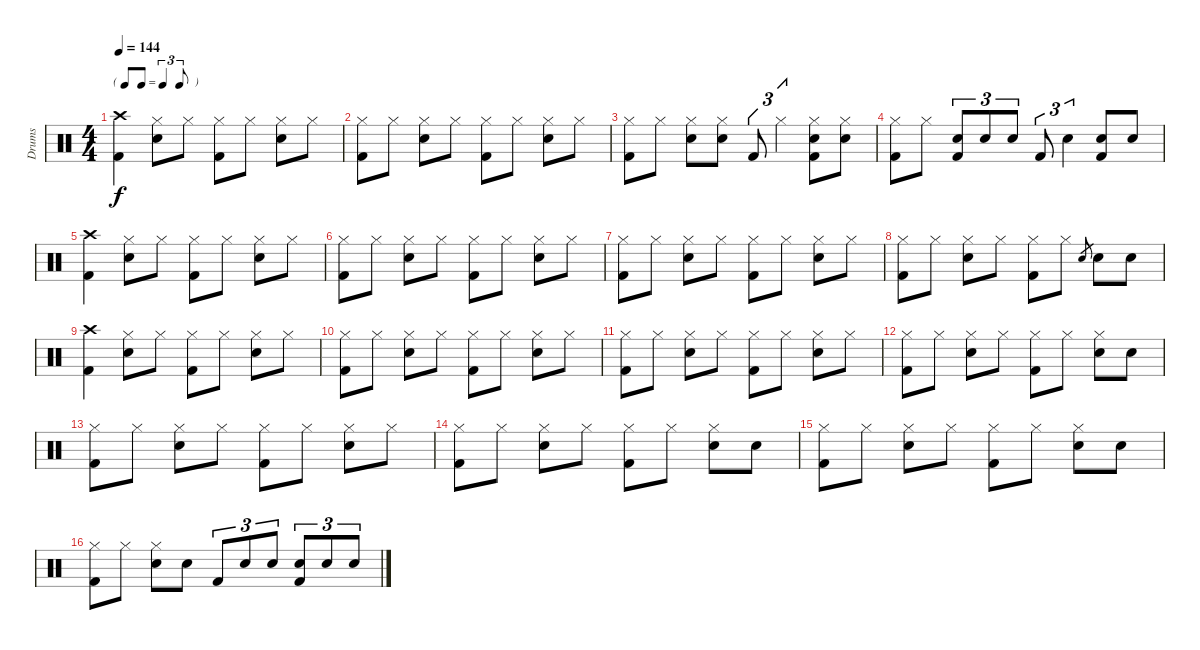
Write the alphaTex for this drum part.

\track ("Drums" "Drums") {instrument percussion}
\staff {score}
\articulation defaults
\ts (4 4)
\tf triplet8th
\tempo 144
\clef neutral
\ks c
("Crash high (hit)" "Kick (hit) 2").4{dy f} ("Hi-Hat (closed)" "Electric Snare (hit)").8 "Hi-Hat (closed)".8 ("Hi-Hat (closed)" "Kick (hit) 2").8 "Hi-Hat (closed)".8 ("Hi-Hat (closed)" "Electric Snare (hit)").8 "Hi-Hat (closed)".8 |
("Hi-Hat (closed)" "Kick (hit) 2").8 "Hi-Hat (closed)".8 ("Hi-Hat (closed)" "Electric Snare (hit)").8 "Hi-Hat (closed)".8 ("Hi-Hat (closed)" "Kick (hit) 2").8 "Hi-Hat (closed)".8 ("Hi-Hat (closed)" "Electric Snare (hit)").8 "Hi-Hat (closed)".8 |
("Hi-Hat (closed)" "Kick (hit) 2").8 "Hi-Hat (closed)".8 ("Hi-Hat (closed)" "Electric Snare (hit)").8 ("Hi-Hat (closed)" "Electric Snare (hit)").8 "Kick (hit) 2".8{tu (3 2)} "Hi-Hat (closed)".4{tu (3 2)} ("Hi-Hat (closed)" "Electric Snare (hit)" "Kick (hit) 2").8 ("Hi-Hat (closed)" "Electric Snare (hit)").8 |
("Hi-Hat (closed)" "Kick (hit) 2").8 "Hi-Hat (closed)".8 ("Electric Snare (hit)" "Kick (hit) 2").8{tu (3 2)} "Electric Snare (hit)".8{tu (3 2)} "Electric Snare (hit)".8{tu (3 2)} "Kick (hit) 2".8{tu (3 2)} "Electric Snare (hit)".4{tu (3 2)} ("Electric Snare (hit)" "Kick (hit) 2").8 "Electric Snare (hit)".8 |
("Crash high (hit)" "Kick (hit) 2").4 ("Hi-Hat (closed)" "Electric Snare (hit)").8 "Hi-Hat (closed)".8 ("Hi-Hat (closed)" "Kick (hit) 2").8 "Hi-Hat (closed)".8 ("Hi-Hat (closed)" "Electric Snare (hit)").8 "Hi-Hat (closed)".8 |
("Hi-Hat (closed)" "Kick (hit) 2").8 "Hi-Hat (closed)".8 ("Hi-Hat (closed)" "Electric Snare (hit)").8 "Hi-Hat (closed)".8 ("Hi-Hat (closed)" "Kick (hit) 2").8 "Hi-Hat (closed)".8 ("Hi-Hat (closed)" "Electric Snare (hit)").8 "Hi-Hat (closed)".8 |
("Hi-Hat (closed)" "Kick (hit) 2").8 "Hi-Hat (closed)".8 ("Hi-Hat (closed)" "Electric Snare (hit)").8 "Hi-Hat (closed)".8 ("Hi-Hat (closed)" "Kick (hit) 2").8 "Hi-Hat (closed)".8 ("Hi-Hat (closed)" "Electric Snare (hit)").8 "Hi-Hat (closed)".8 |
("Hi-Hat (closed)" "Kick (hit) 2").8 "Hi-Hat (closed)".8 ("Hi-Hat (closed)" "Electric Snare (hit)").8 "Hi-Hat (closed)".8 ("Hi-Hat (closed)" "Kick (hit) 2").8 "Hi-Hat (closed)".8 "Electric Snare (hit)".8{gr} "Electric Snare (hit)".8 "Electric Snare (hit)".8 |
("Crash high (hit)" "Kick (hit) 2").4 ("Hi-Hat (closed)" "Electric Snare (hit)").8 "Hi-Hat (closed)".8 ("Hi-Hat (closed)" "Kick (hit) 2").8 "Hi-Hat (closed)".8 ("Hi-Hat (closed)" "Electric Snare (hit)").8 "Hi-Hat (closed)".8 |
("Hi-Hat (closed)" "Kick (hit) 2").8 "Hi-Hat (closed)".8 ("Hi-Hat (closed)" "Electric Snare (hit)").8 "Hi-Hat (closed)".8 ("Hi-Hat (closed)" "Kick (hit) 2").8 "Hi-Hat (closed)".8 ("Hi-Hat (closed)" "Electric Snare (hit)").8 "Hi-Hat (closed)".8 |
("Hi-Hat (closed)" "Kick (hit) 2").8 "Hi-Hat (closed)".8 ("Hi-Hat (closed)" "Electric Snare (hit)").8 "Hi-Hat (closed)".8 ("Hi-Hat (closed)" "Kick (hit) 2").8 "Hi-Hat (closed)".8 ("Hi-Hat (closed)" "Electric Snare (hit)").8 "Hi-Hat (closed)".8 |
("Hi-Hat (closed)" "Kick (hit) 2").8 "Hi-Hat (closed)".8 ("Hi-Hat (closed)" "Electric Snare (hit)").8 "Hi-Hat (closed)".8 ("Hi-Hat (closed)" "Kick (hit) 2").8 "Hi-Hat (closed)".8 ("Hi-Hat (closed)" "Electric Snare (hit)").8 "Electric Snare (hit)".8 |
("Hi-Hat (closed)" "Kick (hit) 2").8 "Hi-Hat (closed)".8 ("Hi-Hat (closed)" "Electric Snare (hit)").8 "Hi-Hat (closed)".8 ("Hi-Hat (closed)" "Kick (hit) 2").8 "Hi-Hat (closed)".8 ("Hi-Hat (closed)" "Electric Snare (hit)").8 "Hi-Hat (closed)".8 |
("Hi-Hat (closed)" "Kick (hit) 2").8 "Hi-Hat (closed)".8 ("Hi-Hat (closed)" "Electric Snare (hit)").8 "Hi-Hat (closed)".8 ("Hi-Hat (closed)" "Kick (hit) 2").8 "Hi-Hat (closed)".8 ("Hi-Hat (closed)" "Electric Snare (hit)").8 "Electric Snare (hit)".8 |
("Hi-Hat (closed)" "Kick (hit) 2").8 "Hi-Hat (closed)".8 ("Hi-Hat (closed)" "Electric Snare (hit)").8 "Hi-Hat (closed)".8 ("Hi-Hat (closed)" "Kick (hit) 2").8 "Hi-Hat (closed)".8 ("Hi-Hat (closed)" "Electric Snare (hit)").8 "Electric Snare (hit)".8 |
("Hi-Hat (closed)" "Kick (hit) 2").8 "Hi-Hat (closed)".8 ("Hi-Hat (closed)" "Electric Snare (hit)").8 "Electric Snare (hit)".8 "Kick (hit) 2".8{tu (3 2)} "Electric Snare (hit)".8{tu (3 2)} "Electric Snare (hit)".8{tu (3 2)} ("Electric Snare (hit)" "Kick (hit) 2").8{tu (3 2)} "Electric Snare (hit)".8{tu (3 2)} "Electric Snare (hit)".8{tu (3 2)}
